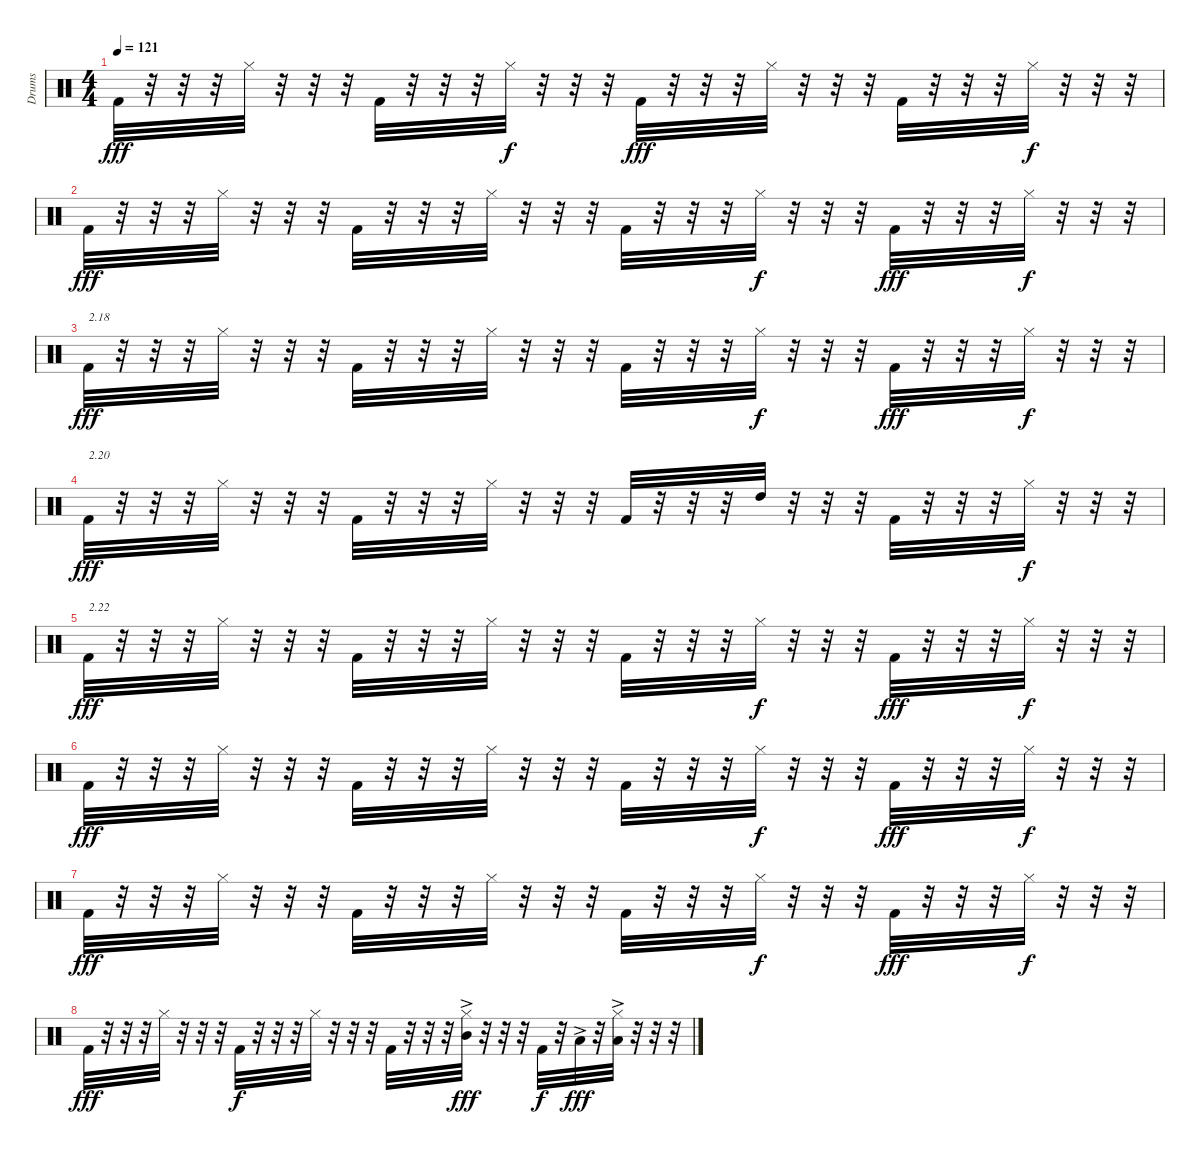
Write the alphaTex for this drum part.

\track ("Drums" "Drums") {instrument percussion}
\staff {score}
\articulation defaults
\ts (4 4)
\tempo 121
\clef neutral
\ks c "Kick (hit) 2".32{dy fff}
r.32 r.32 r.32 "Hi-Hat (closed)".32 r.32 r.32 r.32 "Kick (hit) 2".32 r.32 r.32 r.32 "Hi-Hat (closed)".32{dy f} r.32 r.32 r.32 "Kick (hit) 2".32{dy fff} r.32 r.32 r.32 "Hi-Hat (closed)".32 r.32 r.32 r.32 "Kick (hit) 2".32 r.32 r.32 r.32 "Hi-Hat (closed)".32{dy f} r.32 r.32 r.32 |
"Kick (hit) 2".32{dy fff} r.32 r.32 r.32 "Hi-Hat (closed)".32 r.32 r.32 r.32 "Kick (hit) 2".32 r.32 r.32 r.32 "Hi-Hat (closed)".32 r.32 r.32 r.32 "Kick (hit) 2".32 r.32 r.32 r.32 "Hi-Hat (closed)".32{dy f} r.32 r.32 r.32 "Kick (hit) 2".32{dy fff} r.32 r.32 r.32 "Hi-Hat (closed)".32{dy f} r.32 r.32 r.32 |
"Kick (hit) 2".32{txt "2.18" dy fff} r.32 r.32 r.32 "Hi-Hat (closed)".32 r.32 r.32 r.32 "Kick (hit) 2".32 r.32 r.32 r.32 "Hi-Hat (closed)".32 r.32 r.32 r.32 "Kick (hit) 2".32 r.32 r.32 r.32 "Hi-Hat (closed)".32{dy f} r.32 r.32 r.32 "Kick (hit) 2".32{dy fff} r.32 r.32 r.32 "Hi-Hat (closed)".32{dy f} r.32 r.32 r.32 |
"Kick (hit) 2".32{txt "2.20" dy fff} r.32 r.32 r.32 "Hi-Hat (closed)".32 r.32 r.32 r.32 "Kick (hit) 2".32 r.32 r.32 r.32 "Hi-Hat (closed)".32 r.32 r.32 r.32 "Kick (hit) 2".32 r.32 r.32 r.32 "High Tom (hit)".32 r.32 r.32 r.32 "Kick (hit) 2".32 r.32 r.32 r.32 "Hi-Hat (closed)".32{dy f} r.32 r.32 r.32 |
"Kick (hit) 2".32{txt "2.22" dy fff} r.32 r.32 r.32 "Hi-Hat (closed)".32 r.32 r.32 r.32 "Kick (hit) 2".32 r.32 r.32 r.32 "Hi-Hat (closed)".32 r.32 r.32 r.32 "Kick (hit) 2".32 r.32 r.32 r.32 "Hi-Hat (closed)".32{dy f} r.32 r.32 r.32 "Kick (hit) 2".32{dy fff} r.32 r.32 r.32 "Hi-Hat (closed)".32{dy f} r.32 r.32 r.32 |
"Kick (hit) 2".32{dy fff} r.32 r.32 r.32 "Hi-Hat (closed)".32 r.32 r.32 r.32 "Kick (hit) 2".32 r.32 r.32 r.32 "Hi-Hat (closed)".32 r.32 r.32 r.32 "Kick (hit) 2".32 r.32 r.32 r.32 "Hi-Hat (closed)".32{dy f} r.32 r.32 r.32 "Kick (hit) 2".32{dy fff} r.32 r.32 r.32 "Hi-Hat (closed)".32{dy f} r.32 r.32 r.32 |
"Kick (hit) 2".32{dy fff} r.32 r.32 r.32 "Hi-Hat (closed)".32 r.32 r.32 r.32 "Kick (hit) 2".32 r.32 r.32 r.32 "Hi-Hat (closed)".32 r.32 r.32 r.32 "Kick (hit) 2".32 r.32 r.32 r.32 "Hi-Hat (closed)".32{dy f} r.32 r.32 r.32 "Kick (hit) 2".32{dy fff} r.32 r.32 r.32 "Hi-Hat (closed)".32{dy f} r.32 r.32 r.32 |
"Kick (hit) 2".32{dy fff} r.32 r.32 r.32 "Hi-Hat (closed)".32 r.32 r.32 r.32 "Kick (hit) 2".32{dy f} r.32 r.32 r.32 "Hi-Hat (closed)".32 r.32 r.32 r.32 "Kick (hit) 2".32 r.32 r.32 r.32 ("Hi-Hat (closed)" "Mid Tom (hit)"{ac}).32{dy fff} r.32 r.32 r.32 "Kick (hit) 2".32{dy f} r.32 "Low Tom (hit)"{ac}.32{dy fff} r.32 ("Hi-Hat (closed)" "Low Tom (hit)"{ac}).32 r.32 r.32 r.32
